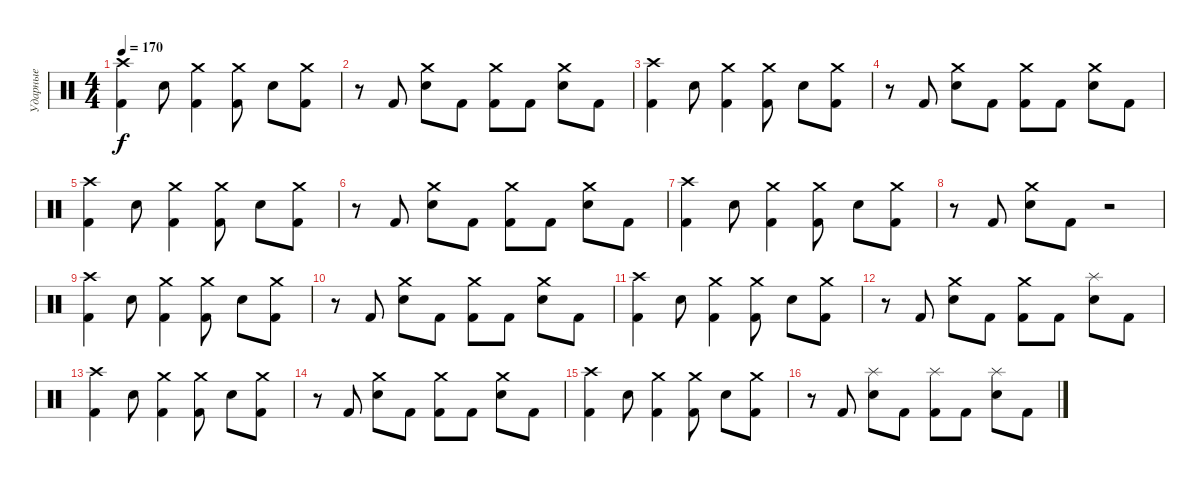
\track ("Ударные" "Ударные") {instrument percussion}
\staff {score}
\articulation defaults
\ts (4 4)
\tempo 170
\clef neutral
\ks c
("Crash high (hit)" "Kick (hit) 2").4{dy f} "Electric Snare (hit)".8 ("Crash medium (hit)" "Kick (hit) 2").4 ("Crash medium (hit)" "Kick (hit) 2").8 "Electric Snare (hit)".8 ("Crash medium (hit)" "Kick (hit) 2").8 |
r.8 "Kick (hit) 2".8 ("Crash medium (hit)" "Electric Snare (hit)").8 "Kick (hit) 2".8 ("Crash medium (hit)" "Kick (hit) 2").8 "Kick (hit) 2".8 ("Crash medium (hit)" "Electric Snare (hit)").8 "Kick (hit) 2".8 |
("Crash high (hit)" "Kick (hit) 2").4 "Electric Snare (hit)".8 ("Crash medium (hit)" "Kick (hit) 2").4 ("Crash medium (hit)" "Kick (hit) 2").8 "Electric Snare (hit)".8 ("Crash medium (hit)" "Kick (hit) 2").8 |
r.8 "Kick (hit) 2".8 ("Crash medium (hit)" "Electric Snare (hit)").8 "Kick (hit) 2".8 ("Crash medium (hit)" "Kick (hit) 2").8 "Kick (hit) 2".8 ("Crash medium (hit)" "Electric Snare (hit)").8 "Kick (hit) 2".8 |
("Crash high (hit)" "Kick (hit) 2").4 "Electric Snare (hit)".8 ("Crash medium (hit)" "Kick (hit) 2").4 ("Crash medium (hit)" "Kick (hit) 2").8 "Electric Snare (hit)".8 ("Crash medium (hit)" "Kick (hit) 2").8 |
r.8 "Kick (hit) 2".8 ("Crash medium (hit)" "Electric Snare (hit)").8 "Kick (hit) 2".8 ("Crash medium (hit)" "Kick (hit) 2").8 "Kick (hit) 2".8 ("Crash medium (hit)" "Electric Snare (hit)").8 "Kick (hit) 2".8 |
("Crash high (hit)" "Kick (hit) 2").4 "Electric Snare (hit)".8 ("Crash medium (hit)" "Kick (hit) 2").4 ("Crash medium (hit)" "Kick (hit) 2").8 "Electric Snare (hit)".8 ("Crash medium (hit)" "Kick (hit) 2").8 |
r.8 "Kick (hit) 2".8 ("Crash medium (hit)" "Electric Snare (hit)").8 "Kick (hit) 2".8 r.2 |
("Crash high (hit)" "Kick (hit) 2").4 "Electric Snare (hit)".8 ("Crash medium (hit)" "Kick (hit) 2").4 ("Crash medium (hit)" "Kick (hit) 2").8 "Electric Snare (hit)".8 ("Crash medium (hit)" "Kick (hit) 2").8 |
r.8 "Kick (hit) 2".8 ("Crash medium (hit)" "Electric Snare (hit)").8 "Kick (hit) 2".8 ("Crash medium (hit)" "Kick (hit) 2").8 "Kick (hit) 2".8 ("Crash medium (hit)" "Electric Snare (hit)").8 "Kick (hit) 2".8 |
("Crash high (hit)" "Kick (hit) 2").4 "Electric Snare (hit)".8 ("Crash medium (hit)" "Kick (hit) 2").4 ("Crash medium (hit)" "Kick (hit) 2").8 "Electric Snare (hit)".8 ("Crash medium (hit)" "Kick (hit) 2").8 |
r.8 "Kick (hit) 2".8 ("Crash medium (hit)" "Electric Snare (hit)").8 "Kick (hit) 2".8 ("Crash medium (hit)" "Kick (hit) 2").8 "Kick (hit) 2".8 ("Splash (hit)" "Electric Snare (hit)").8 "Kick (hit) 2".8 |
("Crash high (hit)" "Kick (hit) 2").4 "Electric Snare (hit)".8 ("Crash medium (hit)" "Kick (hit) 2").4 ("Crash medium (hit)" "Kick (hit) 2").8 "Electric Snare (hit)".8 ("Crash medium (hit)" "Kick (hit) 2").8 |
r.8 "Kick (hit) 2".8 ("Crash medium (hit)" "Electric Snare (hit)").8 "Kick (hit) 2".8 ("Crash medium (hit)" "Kick (hit) 2").8 "Kick (hit) 2".8 ("Crash medium (hit)" "Electric Snare (hit)").8 "Kick (hit) 2".8 |
("Crash high (hit)" "Kick (hit) 2").4 "Electric Snare (hit)".8 ("Crash medium (hit)" "Kick (hit) 2").4 ("Crash medium (hit)" "Kick (hit) 2").8 "Electric Snare (hit)".8 ("Crash medium (hit)" "Kick (hit) 2").8 |
r.8 "Kick (hit) 2".8 ("Splash (hit)" "Electric Snare (hit)").8 "Kick (hit) 2".8 ("Splash (hit)" "Kick (hit) 2").8 "Kick (hit) 2".8 ("Splash (hit)" "Electric Snare (hit)").8 "Kick (hit) 2".8
